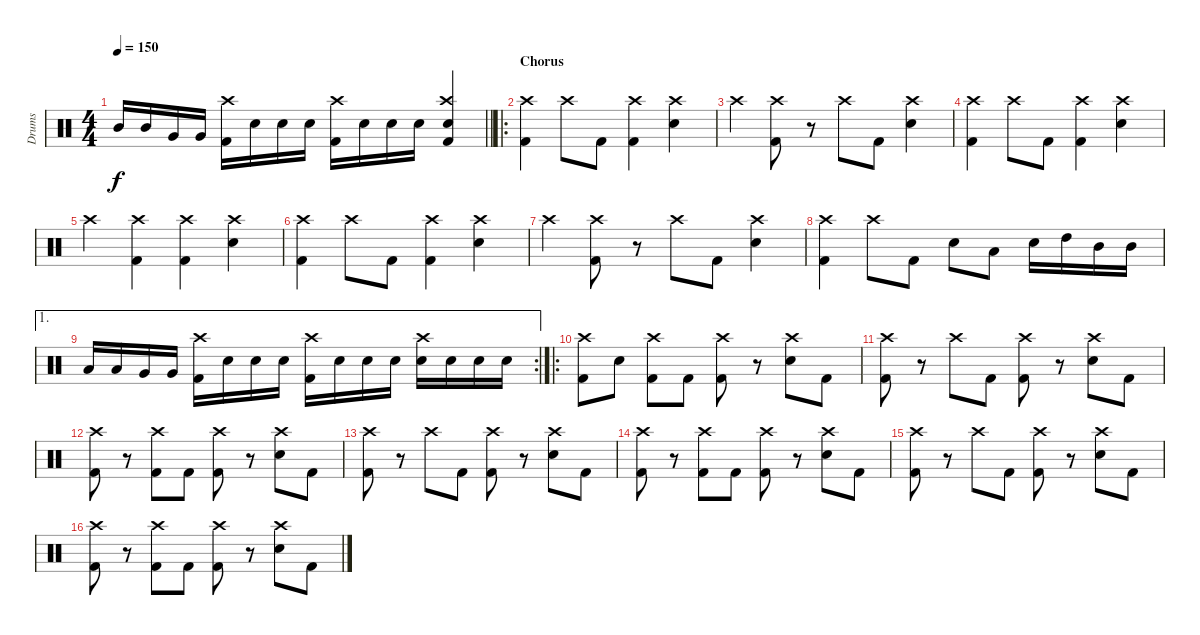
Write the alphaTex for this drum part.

\track ("Drums" "Drums") {instrument percussion}
\staff {score}
\articulation defaults
\ts (4 4)
\tempo 150
\clef neutral
\barLineRight lightlight
\ks c "Mid Tom (hit)".16{dy f} "Mid Tom (hit)".16 "Very Low Tom (hit)".16 "Very Low Tom (hit)".16
("Kick (hit) 2" "Crash high (hit)").16 "Snare (hit) 2".16 "Snare (hit) 2".16 "Snare (hit) 2".16 ("Kick (hit) 2" "Crash high (hit)").16 "Snare (hit) 2".16 "Snare (hit) 2".16 "Snare (hit) 2".16 ("Kick (hit) 2" "Crash high (hit)" "Snare (hit) 2").4 |
\ro
\section ("" "Chorus")
("Kick (hit) 2" "Crash high (hit)").4 "Crash high (hit)".8 "Kick (hit) 2".8 ("Kick (hit) 2" "Crash high (hit)").4 ("Crash high (hit)" "Snare (hit) 2").4 |
"Crash high (hit)".4 ("Kick (hit) 2" "Crash high (hit)").8 r.8 "Crash high (hit)".8 "Kick (hit) 2".8 ("Crash high (hit)" "Snare (hit) 2").4 |
("Kick (hit) 2" "Crash high (hit)").4 "Crash high (hit)".8 "Kick (hit) 2".8 ("Kick (hit) 2" "Crash high (hit)").4 ("Crash high (hit)" "Snare (hit) 2").4 |
"Crash high (hit)".4 ("Kick (hit) 2" "Crash high (hit)").4 ("Kick (hit) 2" "Crash high (hit)").4 ("Crash high (hit)" "Snare (hit) 2").4 |
("Kick (hit) 2" "Crash high (hit)").4 "Crash high (hit)".8 "Kick (hit) 2".8 ("Kick (hit) 2" "Crash high (hit)").4 ("Crash high (hit)" "Snare (hit) 2").4 |
"Crash high (hit)".4 ("Kick (hit) 2" "Crash high (hit)").8 r.8 "Crash high (hit)".8 "Kick (hit) 2".8 ("Crash high (hit)" "Snare (hit) 2").4 |
("Kick (hit) 2" "Crash high (hit)").4 "Crash high (hit)".8 "Kick (hit) 2".8 "Snare (hit) 2".8 "Low Tom (hit)".8 "Snare (hit) 2".16 "High Tom (hit)".16 "Mid Tom (hit)".16 "Mid Tom (hit)".16 |
\ae 1
\rc 2 "Low Tom (hit)".16 "Low Tom (hit)".16 "Very Low Tom (hit)".16 "Very Low Tom (hit)".16
("Kick (hit) 2" "Crash high (hit)").16 "Snare (hit) 2".16 "Snare (hit) 2".16 "Snare (hit) 2".16 ("Kick (hit) 2" "Crash high (hit)").16 "Snare (hit) 2".16 "Snare (hit) 2".16 "Snare (hit) 2".16 ("Crash high (hit)" "Snare (hit) 2").16 "Snare (hit) 2".16 "Snare (hit) 2".16 "Snare (hit) 2".16 |
\ro
("Kick (hit) 2" "Crash high (hit)").8 "Snare (hit) 2".8 ("Kick (hit) 2" "Crash high (hit)").8 "Kick (hit) 2".8 ("Kick (hit) 2" "Crash high (hit)").8 r.8 ("Crash high (hit)" "Snare (hit) 2").8 "Kick (hit) 2".8 |
("Kick (hit) 2" "Crash high (hit)").8 r.8 "Crash high (hit)".8 "Kick (hit) 2".8 ("Kick (hit) 2" "Crash high (hit)").8 r.8 ("Crash high (hit)" "Snare (hit) 2").8 "Kick (hit) 2".8 |
("Kick (hit) 2" "Crash high (hit)").8 r.8 ("Kick (hit) 2" "Crash high (hit)").8 "Kick (hit) 2".8 ("Kick (hit) 2" "Crash high (hit)").8 r.8 ("Crash high (hit)" "Snare (hit) 2").8 "Kick (hit) 2".8 |
("Kick (hit) 2" "Crash high (hit)").8 r.8 "Crash high (hit)".8 "Kick (hit) 2".8 ("Kick (hit) 2" "Crash high (hit)").8 r.8 ("Crash high (hit)" "Snare (hit) 2").8 "Kick (hit) 2".8 |
("Kick (hit) 2" "Crash high (hit)").8 r.8 ("Kick (hit) 2" "Crash high (hit)").8 "Kick (hit) 2".8 ("Kick (hit) 2" "Crash high (hit)").8 r.8 ("Crash high (hit)" "Snare (hit) 2").8 "Kick (hit) 2".8 |
("Kick (hit) 2" "Crash high (hit)").8 r.8 "Crash high (hit)".8 "Kick (hit) 2".8 ("Kick (hit) 2" "Crash high (hit)").8 r.8 ("Crash high (hit)" "Snare (hit) 2").8 "Kick (hit) 2".8 |
("Kick (hit) 2" "Crash high (hit)").8 r.8 ("Kick (hit) 2" "Crash high (hit)").8 "Kick (hit) 2".8 ("Kick (hit) 2" "Crash high (hit)").8 r.8 ("Crash high (hit)" "Snare (hit) 2").8 "Kick (hit) 2".8
